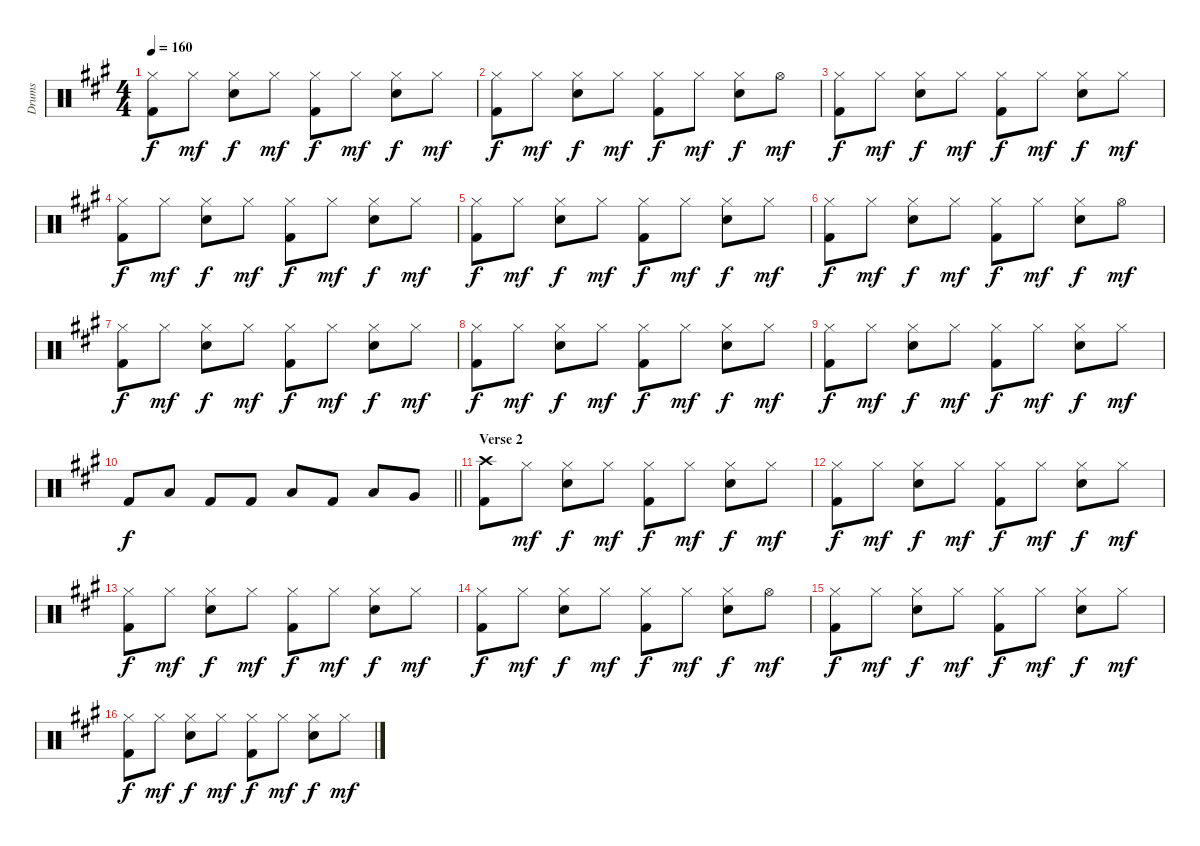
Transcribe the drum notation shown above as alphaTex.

\track ("Drums" "Drums") {instrument percussion}
\staff {score}
\articulation defaults
\ts (4 4)
\tempo 160
\clef neutral
\ks a
("Hi-Hat (closed)" "Kick (hit) 2").8{dy f} "Hi-Hat (closed)".8{dy mf} ("Hi-Hat (closed)" "Electric Snare (hit)").8{dy f} "Hi-Hat (closed)".8{dy mf} ("Hi-Hat (closed)" "Kick (hit) 2").8{dy f} "Hi-Hat (closed)".8{dy mf} ("Hi-Hat (closed)" "Electric Snare (hit)").8{dy f} "Hi-Hat (closed)".8{dy mf} |
("Hi-Hat (closed)" "Kick (hit) 2").8{dy f} "Hi-Hat (closed)".8{dy mf} ("Hi-Hat (closed)" "Electric Snare (hit)").8{dy f} "Hi-Hat (closed)".8{dy mf} ("Hi-Hat (closed)" "Kick (hit) 2").8{dy f} "Hi-Hat (closed)".8{dy mf} ("Hi-Hat (closed)" "Electric Snare (hit)").8{dy f} "Hi-Hat (open)".8{dy mf} |
("Hi-Hat (closed)" "Kick (hit) 2").8{dy f} "Hi-Hat (closed)".8{dy mf} ("Hi-Hat (closed)" "Electric Snare (hit)").8{dy f} "Hi-Hat (closed)".8{dy mf} ("Hi-Hat (closed)" "Kick (hit) 2").8{dy f} "Hi-Hat (closed)".8{dy mf} ("Hi-Hat (closed)" "Electric Snare (hit)").8{dy f} "Hi-Hat (closed)".8{dy mf} |
("Hi-Hat (closed)" "Kick (hit) 2").8{dy f} "Hi-Hat (closed)".8{dy mf} ("Hi-Hat (closed)" "Electric Snare (hit)").8{dy f} "Hi-Hat (closed)".8{dy mf} ("Hi-Hat (closed)" "Kick (hit) 2").8{dy f} "Hi-Hat (closed)".8{dy mf} ("Hi-Hat (closed)" "Electric Snare (hit)").8{dy f} "Hi-Hat (closed)".8{dy mf} |
("Hi-Hat (closed)" "Kick (hit) 2").8{dy f} "Hi-Hat (closed)".8{dy mf} ("Hi-Hat (closed)" "Electric Snare (hit)").8{dy f} "Hi-Hat (closed)".8{dy mf} ("Hi-Hat (closed)" "Kick (hit) 2").8{dy f} "Hi-Hat (closed)".8{dy mf} ("Hi-Hat (closed)" "Electric Snare (hit)").8{dy f} "Hi-Hat (closed)".8{dy mf} |
("Hi-Hat (closed)" "Kick (hit) 2").8{dy f} "Hi-Hat (closed)".8{dy mf} ("Hi-Hat (closed)" "Electric Snare (hit)").8{dy f} "Hi-Hat (closed)".8{dy mf} ("Hi-Hat (closed)" "Kick (hit) 2").8{dy f} "Hi-Hat (closed)".8{dy mf} ("Hi-Hat (closed)" "Electric Snare (hit)").8{dy f} "Hi-Hat (open)".8{dy mf} |
("Hi-Hat (closed)" "Kick (hit) 2").8{dy f} "Hi-Hat (closed)".8{dy mf} ("Hi-Hat (closed)" "Electric Snare (hit)").8{dy f} "Hi-Hat (closed)".8{dy mf} ("Hi-Hat (closed)" "Kick (hit) 2").8{dy f} "Hi-Hat (closed)".8{dy mf} ("Hi-Hat (closed)" "Electric Snare (hit)").8{dy f} "Hi-Hat (closed)".8{dy mf} |
("Hi-Hat (closed)" "Kick (hit) 2").8{dy f} "Hi-Hat (closed)".8{dy mf} ("Hi-Hat (closed)" "Electric Snare (hit)").8{dy f} "Hi-Hat (closed)".8{dy mf} ("Hi-Hat (closed)" "Kick (hit) 2").8{dy f} "Hi-Hat (closed)".8{dy mf} ("Hi-Hat (closed)" "Electric Snare (hit)").8{dy f} "Hi-Hat (closed)".8{dy mf} |
("Hi-Hat (closed)" "Kick (hit) 2").8{dy f} "Hi-Hat (closed)".8{dy mf} ("Hi-Hat (closed)" "Electric Snare (hit)").8{dy f} "Hi-Hat (closed)".8{dy mf} ("Hi-Hat (closed)" "Kick (hit) 2").8{dy f} "Hi-Hat (closed)".8{dy mf} ("Hi-Hat (closed)" "Electric Snare (hit)").8{dy f} "Hi-Hat (closed)".8{dy mf} |
\barLineRight lightlight "Kick (hit) 2".8{dy f} "Low Tom (hit)".8 "Kick (hit) 2".8 "Kick (hit) 2".8 "Low Tom (hit)".8 "Kick (hit) 2".8 "Low Tom (hit)".8 "Very Low Tom (hit)".8
|
\section ("" "Verse 2")
("Crash high (hit)" "Kick (hit) 2").8 "Hi-Hat (closed)".8{dy mf} ("Hi-Hat (closed)" "Electric Snare (hit)").8{dy f} "Hi-Hat (closed)".8{dy mf} ("Hi-Hat (closed)" "Kick (hit) 2").8{dy f} "Hi-Hat (closed)".8{dy mf} ("Hi-Hat (closed)" "Electric Snare (hit)").8{dy f} "Hi-Hat (closed)".8{dy mf} |
("Hi-Hat (closed)" "Kick (hit) 2").8{dy f} "Hi-Hat (closed)".8{dy mf} ("Hi-Hat (closed)" "Electric Snare (hit)").8{dy f} "Hi-Hat (closed)".8{dy mf} ("Hi-Hat (closed)" "Kick (hit) 2").8{dy f} "Hi-Hat (closed)".8{dy mf} ("Hi-Hat (closed)" "Electric Snare (hit)").8{dy f} "Hi-Hat (closed)".8{dy mf} |
("Hi-Hat (closed)" "Kick (hit) 2").8{dy f} "Hi-Hat (closed)".8{dy mf} ("Hi-Hat (closed)" "Electric Snare (hit)").8{dy f} "Hi-Hat (closed)".8{dy mf} ("Hi-Hat (closed)" "Kick (hit) 2").8{dy f} "Hi-Hat (closed)".8{dy mf} ("Hi-Hat (closed)" "Electric Snare (hit)").8{dy f} "Hi-Hat (closed)".8{dy mf} |
("Hi-Hat (closed)" "Kick (hit) 2").8{dy f} "Hi-Hat (closed)".8{dy mf} ("Hi-Hat (closed)" "Electric Snare (hit)").8{dy f} "Hi-Hat (closed)".8{dy mf} ("Hi-Hat (closed)" "Kick (hit) 2").8{dy f} "Hi-Hat (closed)".8{dy mf} ("Hi-Hat (closed)" "Electric Snare (hit)").8{dy f} "Hi-Hat (open)".8{dy mf} |
("Hi-Hat (closed)" "Kick (hit) 2").8{dy f} "Hi-Hat (closed)".8{dy mf} ("Hi-Hat (closed)" "Electric Snare (hit)").8{dy f} "Hi-Hat (closed)".8{dy mf} ("Hi-Hat (closed)" "Kick (hit) 2").8{dy f} "Hi-Hat (closed)".8{dy mf} ("Hi-Hat (closed)" "Electric Snare (hit)").8{dy f} "Hi-Hat (closed)".8{dy mf} |
("Hi-Hat (closed)" "Kick (hit) 2").8{dy f} "Hi-Hat (closed)".8{dy mf} ("Hi-Hat (closed)" "Electric Snare (hit)").8{dy f} "Hi-Hat (closed)".8{dy mf} ("Hi-Hat (closed)" "Kick (hit) 2").8{dy f} "Hi-Hat (closed)".8{dy mf} ("Hi-Hat (closed)" "Electric Snare (hit)").8{dy f} "Hi-Hat (closed)".8{dy mf}
